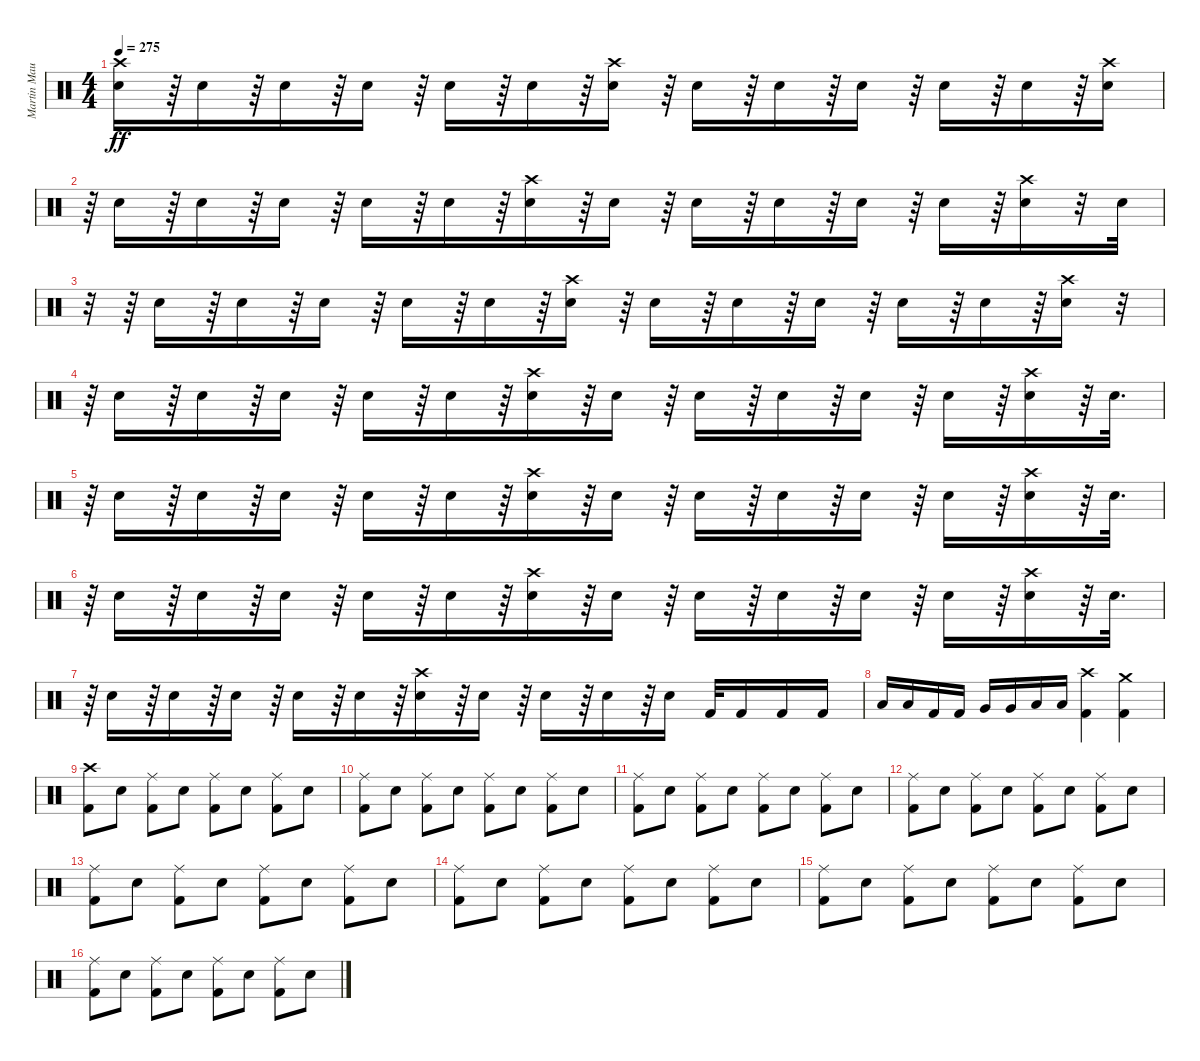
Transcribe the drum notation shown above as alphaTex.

\track ("Martin Maurais " "Martin Mau") {instrument percussion}
\staff {score}
\articulation defaults
\ts (4 4)
\tempo 275
\clef neutral
\ks c
("Crash high (hit)" "Snare (hit) 2").16{dy ff} r.64 "Snare (hit) 2".16 r.64 "Snare (hit) 2".16 r.64 "Snare (hit) 2".16 r.64 "Snare (hit) 2".16 r.64 "Snare (hit) 2".16 r.64 ("Crash high (hit)" "Snare (hit) 2").16 r.64 "Snare (hit) 2".16 r.64 "Snare (hit) 2".16 r.64 "Snare (hit) 2".16 r.64 "Snare (hit) 2".16 r.64 "Snare (hit) 2".16 r.64 ("Crash high (hit)" "Snare (hit) 2").16 |
r.64 "Snare (hit) 2".16 r.64 "Snare (hit) 2".16 r.64 "Snare (hit) 2".16 r.64 "Snare (hit) 2".16 r.64 "Snare (hit) 2".16 r.64 ("Crash high (hit)" "Snare (hit) 2").16 r.64 "Snare (hit) 2".16 r.64 "Snare (hit) 2".16 r.64 "Snare (hit) 2".16 r.64 "Snare (hit) 2".16 r.64 "Snare (hit) 2".16 r.64 ("Crash high (hit)" "Snare (hit) 2").16 r.32 "Snare (hit) 2".32 |
r.32 r.64 "Snare (hit) 2".16 r.64 "Snare (hit) 2".16 r.64 "Snare (hit) 2".16 r.64 "Snare (hit) 2".16 r.64 "Snare (hit) 2".16 r.64 ("Crash high (hit)" "Snare (hit) 2").16 r.64 "Snare (hit) 2".16 r.64 "Snare (hit) 2".16 r.64 "Snare (hit) 2".16 r.64 "Snare (hit) 2".16 r.64 "Snare (hit) 2".16 r.64 ("Crash high (hit)" "Snare (hit) 2").16 r.32 |
r.64 "Snare (hit) 2".16 r.64 "Snare (hit) 2".16 r.64 "Snare (hit) 2".16 r.64 "Snare (hit) 2".16 r.64 "Snare (hit) 2".16 r.64 ("Crash high (hit)" "Snare (hit) 2").16 r.64 "Snare (hit) 2".16 r.64 "Snare (hit) 2".16 r.64 "Snare (hit) 2".16 r.64 "Snare (hit) 2".16 r.64 "Snare (hit) 2".16 r.64 ("Crash high (hit)" "Snare (hit) 2").16 r.64 "Snare (hit) 2".32{d} |
r.64 "Snare (hit) 2".16 r.64 "Snare (hit) 2".16 r.64 "Snare (hit) 2".16 r.64 "Snare (hit) 2".16 r.64 "Snare (hit) 2".16 r.64 ("Crash high (hit)" "Snare (hit) 2").16 r.64 "Snare (hit) 2".16 r.64 "Snare (hit) 2".16 r.64 "Snare (hit) 2".16 r.64 "Snare (hit) 2".16 r.64 "Snare (hit) 2".16 r.64 ("Crash high (hit)" "Snare (hit) 2").16 r.64 "Snare (hit) 2".32{d} |
r.64 "Snare (hit) 2".16 r.64 "Snare (hit) 2".16 r.64 "Snare (hit) 2".16 r.64 "Snare (hit) 2".16 r.64 "Snare (hit) 2".16 r.64 ("Crash high (hit)" "Snare (hit) 2").16 r.64 "Snare (hit) 2".16 r.64 "Snare (hit) 2".16 r.64 "Snare (hit) 2".16 r.64 "Snare (hit) 2".16 r.64 "Snare (hit) 2".16 r.64 ("Crash high (hit)" "Snare (hit) 2").16 r.64 "Snare (hit) 2".32{d} |
r.64 "Snare (hit) 2".16 r.64 "Snare (hit) 2".16 r.64 "Snare (hit) 2".16 r.64 "Snare (hit) 2".16 r.64 "Snare (hit) 2".16 r.64 ("Crash high (hit)" "Snare (hit) 2").16 r.64 "Snare (hit) 2".16 r.64 "Snare (hit) 2".16 r.64 "Snare (hit) 2".16 r.64 "Snare (hit) 2".16 "Kick (hit) 2".32 "Kick (hit) 2".16 "Kick (hit) 2".16 "Kick (hit) 2".16 |
"Low Tom (hit)".16 "Low Tom (hit)".16 "Kick (hit) 2".16 "Kick (hit) 2".16 "Very Low Tom (hit)".16 "Very Low Tom (hit)".16 "Low Floor Tom (hit)".16 "Low Floor Tom (hit)".16 ("Crash high (hit)" "Kick (hit) 2").4 ("Crash medium (hit)" "Kick (hit) 2").4 |
("Crash high (hit)" "Kick (hit) 2").8 "Snare (hit) 2".8 ("Ride (middle)" "Kick (hit) 2").8 "Snare (hit) 2".8 ("Ride (middle)" "Kick (hit) 2").8 "Snare (hit) 2".8 ("Ride (middle)" "Kick (hit) 2").8 "Snare (hit) 2".8 |
("Ride (middle)" "Kick (hit) 2").8 "Snare (hit) 2".8 ("Ride (middle)" "Kick (hit) 2").8 "Snare (hit) 2".8 ("Ride (middle)" "Kick (hit) 2").8 "Snare (hit) 2".8 ("Ride (middle)" "Kick (hit) 2").8 "Snare (hit) 2".8 |
("Ride (middle)" "Kick (hit) 2").8 "Snare (hit) 2".8 ("Ride (middle)" "Kick (hit) 2").8 "Snare (hit) 2".8 ("Ride (middle)" "Kick (hit) 2").8 "Snare (hit) 2".8 ("Ride (middle)" "Kick (hit) 2").8 "Snare (hit) 2".8 |
("Ride (middle)" "Kick (hit) 2").8 "Snare (hit) 2".8 ("Ride (middle)" "Kick (hit) 2").8 "Snare (hit) 2".8 ("Ride (middle)" "Kick (hit) 2").8 "Snare (hit) 2".8 ("Ride (middle)" "Kick (hit) 2").8 "Snare (hit) 2".8 |
("Ride (middle)" "Kick (hit) 2").8 "Snare (hit) 2".8 ("Ride (middle)" "Kick (hit) 2").8 "Snare (hit) 2".8 ("Ride (middle)" "Kick (hit) 2").8 "Snare (hit) 2".8 ("Ride (middle)" "Kick (hit) 2").8 "Snare (hit) 2".8 |
("Ride (middle)" "Kick (hit) 2").8 "Snare (hit) 2".8 ("Ride (middle)" "Kick (hit) 2").8 "Snare (hit) 2".8 ("Ride (middle)" "Kick (hit) 2").8 "Snare (hit) 2".8 ("Ride (middle)" "Kick (hit) 2").8 "Snare (hit) 2".8 |
("Ride (middle)" "Kick (hit) 2").8 "Snare (hit) 2".8 ("Ride (middle)" "Kick (hit) 2").8 "Snare (hit) 2".8 ("Ride (middle)" "Kick (hit) 2").8 "Snare (hit) 2".8 ("Ride (middle)" "Kick (hit) 2").8 "Snare (hit) 2".8 |
("Ride (middle)" "Kick (hit) 2").8 "Snare (hit) 2".8 ("Ride (middle)" "Kick (hit) 2").8 "Snare (hit) 2".8 ("Ride (middle)" "Kick (hit) 2").8 "Snare (hit) 2".8 ("Ride (middle)" "Kick (hit) 2").8 "Snare (hit) 2".8
